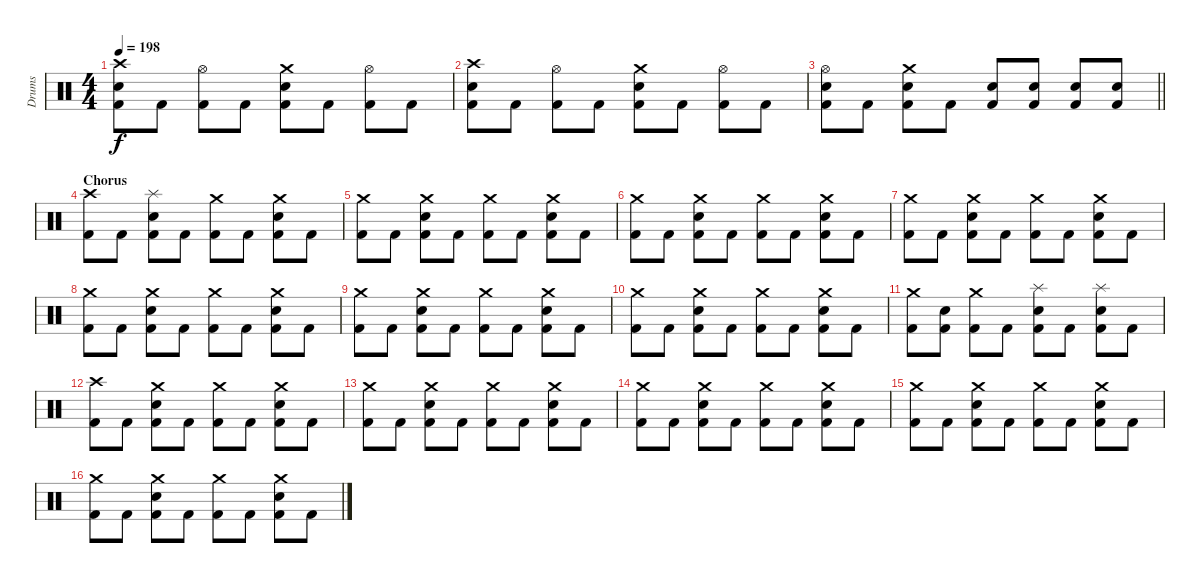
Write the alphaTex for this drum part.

\track ("Drums" "Drums") {instrument percussion}
\staff {score}
\articulation defaults
\ts (4 4)
\tempo 198
\clef neutral
\ks c
("Crash high (hit)" "Electric Snare (hit)" "Kick (hit) 2").8{dy f} "Kick (hit) 2".8 ("Hi-Hat (open)" "Kick (hit) 2").8 "Kick (hit) 2".8 ("Crash medium (hit)" "Electric Snare (hit)" "Kick (hit) 2").8 "Kick (hit) 2".8 ("Hi-Hat (open)" "Kick (hit) 2").8 "Kick (hit) 2".8 |
("Crash high (hit)" "Electric Snare (hit)" "Kick (hit) 2").8 "Kick (hit) 2".8 ("Hi-Hat (open)" "Kick (hit) 2").8 "Kick (hit) 2".8 ("Crash medium (hit)" "Electric Snare (hit)" "Kick (hit) 2").8 "Kick (hit) 2".8 ("Hi-Hat (open)" "Kick (hit) 2").8 "Kick (hit) 2".8 |
\barLineRight lightlight
("Hi-Hat (open)" "Electric Snare (hit)" "Kick (hit) 2").8 "Kick (hit) 2".8 ("Crash medium (hit)" "Electric Snare (hit)" "Kick (hit) 2").8 "Kick (hit) 2".8 ("Electric Snare (hit)" "Kick (hit) 2").8 ("Electric Snare (hit)" "Kick (hit) 2").8 ("Electric Snare (hit)" "Kick (hit) 2").8 ("Electric Snare (hit)" "Kick (hit) 2").8 |
\section ("" "Chorus")
("Crash high (hit)" "Kick (hit) 2").8 "Kick (hit) 2".8 ("Splash (hit)" "Electric Snare (hit)" "Kick (hit) 2").8 "Kick (hit) 2".8 ("Crash medium (hit)" "Kick (hit) 2").8 "Kick (hit) 2".8 ("Crash medium (hit)" "Electric Snare (hit)" "Kick (hit) 2").8 "Kick (hit) 2".8 |
("Crash medium (hit)" "Kick (hit) 2").8 "Kick (hit) 2".8 ("Crash medium (hit)" "Electric Snare (hit)" "Kick (hit) 2").8 "Kick (hit) 2".8 ("Crash medium (hit)" "Kick (hit) 2").8 "Kick (hit) 2".8 ("Crash medium (hit)" "Electric Snare (hit)" "Kick (hit) 2").8 "Kick (hit) 2".8 |
("Crash medium (hit)" "Kick (hit) 2").8 "Kick (hit) 2".8 ("Crash medium (hit)" "Electric Snare (hit)" "Kick (hit) 2").8 "Kick (hit) 2".8 ("Crash medium (hit)" "Kick (hit) 2").8 "Kick (hit) 2".8 ("Crash medium (hit)" "Electric Snare (hit)" "Kick (hit) 2").8 "Kick (hit) 2".8 |
("Crash medium (hit)" "Kick (hit) 2").8 "Kick (hit) 2".8 ("Crash medium (hit)" "Electric Snare (hit)" "Kick (hit) 2").8 "Kick (hit) 2".8 ("Crash medium (hit)" "Kick (hit) 2").8 "Kick (hit) 2".8 ("Crash medium (hit)" "Electric Snare (hit)" "Kick (hit) 2").8 "Kick (hit) 2".8 |
("Crash medium (hit)" "Kick (hit) 2").8 "Kick (hit) 2".8 ("Crash medium (hit)" "Electric Snare (hit)" "Kick (hit) 2").8 "Kick (hit) 2".8 ("Crash medium (hit)" "Kick (hit) 2").8 "Kick (hit) 2".8 ("Crash medium (hit)" "Electric Snare (hit)" "Kick (hit) 2").8 "Kick (hit) 2".8 |
("Crash medium (hit)" "Kick (hit) 2").8 "Kick (hit) 2".8 ("Crash medium (hit)" "Electric Snare (hit)" "Kick (hit) 2").8 "Kick (hit) 2".8 ("Crash medium (hit)" "Kick (hit) 2").8 "Kick (hit) 2".8 ("Crash medium (hit)" "Electric Snare (hit)" "Kick (hit) 2").8 "Kick (hit) 2".8 |
("Crash medium (hit)" "Kick (hit) 2").8 "Kick (hit) 2".8 ("Crash medium (hit)" "Electric Snare (hit)" "Kick (hit) 2").8 "Kick (hit) 2".8 ("Crash medium (hit)" "Kick (hit) 2").8 "Kick (hit) 2".8 ("Crash medium (hit)" "Electric Snare (hit)" "Kick (hit) 2").8 "Kick (hit) 2".8 |
("Crash medium (hit)" "Kick (hit) 2").8 ("Electric Snare (hit)" "Kick (hit) 2").8 ("Crash medium (hit)" "Kick (hit) 2").8 "Kick (hit) 2".8 ("Splash (hit)" "Electric Snare (hit)" "Kick (hit) 2").8 "Kick (hit) 2".8 ("Splash (hit)" "Electric Snare (hit)" "Kick (hit) 2").8 "Kick (hit) 2".8 |
("Crash high (hit)" "Kick (hit) 2").8 "Kick (hit) 2".8 ("Crash medium (hit)" "Electric Snare (hit)" "Kick (hit) 2").8 "Kick (hit) 2".8 ("Crash medium (hit)" "Kick (hit) 2").8 "Kick (hit) 2".8 ("Crash medium (hit)" "Electric Snare (hit)" "Kick (hit) 2").8 "Kick (hit) 2".8 |
("Crash medium (hit)" "Kick (hit) 2").8 "Kick (hit) 2".8 ("Crash medium (hit)" "Electric Snare (hit)" "Kick (hit) 2").8 "Kick (hit) 2".8 ("Crash medium (hit)" "Kick (hit) 2").8 "Kick (hit) 2".8 ("Crash medium (hit)" "Electric Snare (hit)" "Kick (hit) 2").8 "Kick (hit) 2".8 |
("Crash medium (hit)" "Kick (hit) 2").8 "Kick (hit) 2".8 ("Crash medium (hit)" "Electric Snare (hit)" "Kick (hit) 2").8 "Kick (hit) 2".8 ("Crash medium (hit)" "Kick (hit) 2").8 "Kick (hit) 2".8 ("Crash medium (hit)" "Electric Snare (hit)" "Kick (hit) 2").8 "Kick (hit) 2".8 |
("Crash medium (hit)" "Kick (hit) 2").8 "Kick (hit) 2".8 ("Crash medium (hit)" "Electric Snare (hit)" "Kick (hit) 2").8 "Kick (hit) 2".8 ("Crash medium (hit)" "Kick (hit) 2").8 "Kick (hit) 2".8 ("Crash medium (hit)" "Electric Snare (hit)" "Kick (hit) 2").8 "Kick (hit) 2".8 |
("Crash medium (hit)" "Kick (hit) 2").8 "Kick (hit) 2".8 ("Crash medium (hit)" "Electric Snare (hit)" "Kick (hit) 2").8 "Kick (hit) 2".8 ("Crash medium (hit)" "Kick (hit) 2").8 "Kick (hit) 2".8 ("Crash medium (hit)" "Electric Snare (hit)" "Kick (hit) 2").8 "Kick (hit) 2".8
